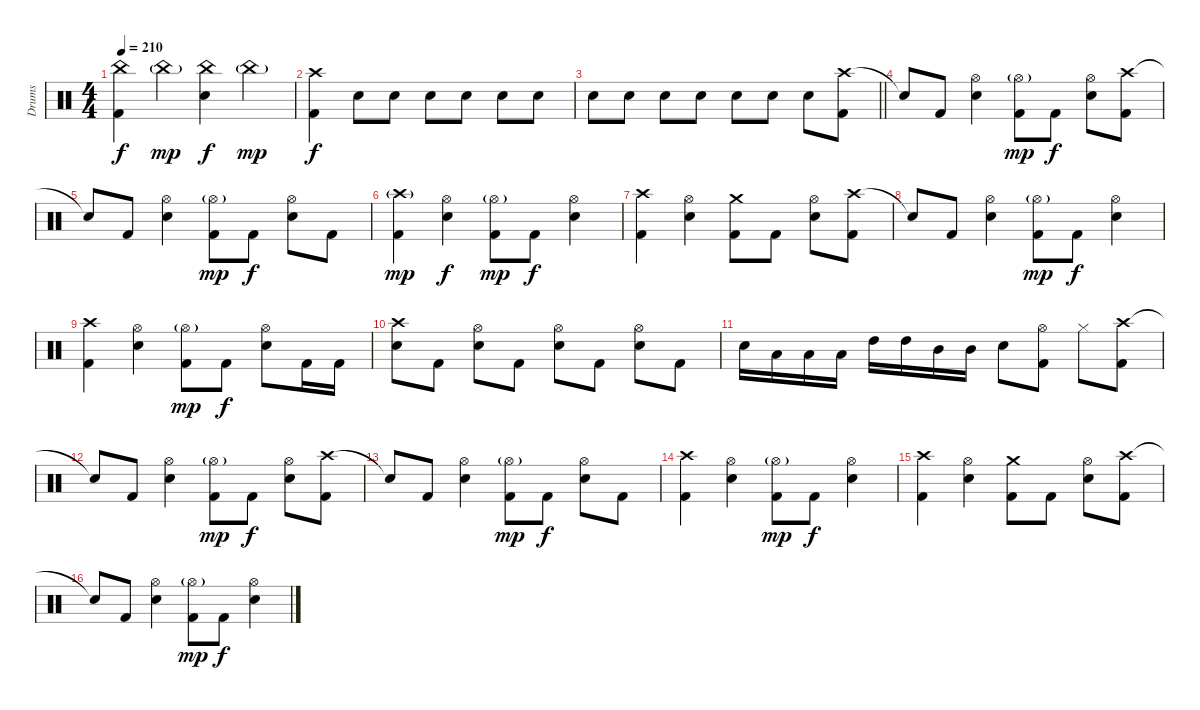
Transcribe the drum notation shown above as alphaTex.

\track ("Drums" "Drums") {instrument percussion}
\staff {score}
\articulation defaults
\ts (4 4)
\tempo 210
\clef neutral
\ks c
("China (hit)" "Kick (hit) 2").4{dy f} "China (hit)"{g}.4{dy mp} ("China (hit)" "Electric Snare (hit)").4{dy f} "China (hit)"{g}.4{dy mp} |
("Crash high (hit)" "Kick (hit) 2").4{dy f} "Electric Snare (hit)".8 "Electric Snare (hit)".8 "Electric Snare (hit)".8 "Electric Snare (hit)".8 "Electric Snare (hit)".8 "Electric Snare (hit)".8 |
\barLineRight lightlight "Electric Snare (hit)".8 "Electric Snare (hit)".8 "Electric Snare (hit)".8 "Electric Snare (hit)".8 "Electric Snare (hit)".8 "Electric Snare (hit)".8 "Electric Snare (hit)".8
("Crash high (hit)" "Kick (hit) 2").8 |
"Snare (hit)"{t}.8 "Kick (hit) 2".8 ("Hi-Hat (open)" "Electric Snare (hit)").4 ("Hi-Hat (open)"{g} "Kick (hit) 2").8{dy mp} "Kick (hit) 2".8{dy f} ("Hi-Hat (open)" "Electric Snare (hit)").8 ("Crash high (hit)" "Kick (hit) 2").8 |
"Snare (hit)"{t}.8 "Kick (hit) 2".8 ("Hi-Hat (open)" "Electric Snare (hit)").4 ("Hi-Hat (open)"{g} "Kick (hit) 2").8{dy mp} "Kick (hit) 2".8{dy f} ("Hi-Hat (open)" "Electric Snare (hit)").8 "Kick (hit) 2".8 |
("Crash high (hit)"{g} "Kick (hit) 2").4{dy mp} ("Hi-Hat (open)" "Electric Snare (hit)").4{dy f} ("Hi-Hat (open)"{g} "Kick (hit) 2").8{dy mp} "Kick (hit) 2".8{dy f} ("Hi-Hat (open)" "Electric Snare (hit)").4 |
("Crash high (hit)" "Kick (hit) 2").4 ("Hi-Hat (open)" "Electric Snare (hit)").4 ("Crash medium (hit)" "Kick (hit) 2").8 "Kick (hit) 2".8 ("Hi-Hat (open)" "Electric Snare (hit)").8 ("Crash high (hit)" "Kick (hit) 2").8 |
"Snare (hit)"{t}.8 "Kick (hit) 2".8 ("Hi-Hat (open)" "Electric Snare (hit)").4 ("Hi-Hat (open)"{g} "Kick (hit) 2").8{dy mp} "Kick (hit) 2".8{dy f} ("Hi-Hat (open)" "Electric Snare (hit)").4 |
("Crash high (hit)" "Kick (hit) 2").4 ("Hi-Hat (open)" "Electric Snare (hit)").4 ("Hi-Hat (open)"{g} "Kick (hit) 2").8{dy mp} "Kick (hit) 2".8{dy f} ("Hi-Hat (open)" "Electric Snare (hit)").8 "Kick (hit) 2".16 "Kick (hit) 2".16 |
("Crash high (hit)" "Electric Snare (hit)").8 "Kick (hit) 2".8 ("Hi-Hat (open)" "Electric Snare (hit)").8 "Kick (hit) 2".8 ("Hi-Hat (open)" "Electric Snare (hit)").8 "Kick (hit) 2".8 ("Hi-Hat (open)" "Electric Snare (hit)").8 "Kick (hit) 2".8 |
"Electric Snare (hit)".16 "Low Tom (hit)".16 "Low Tom (hit)".16 "Low Tom (hit)".16 "High Tom (hit)".16 "High Tom (hit)".16 "Mid Tom (hit)".16 "Mid Tom (hit)".16 "Electric Snare (hit)".8 ("Hi-Hat (open)" "Kick (hit) 2").8 "Hi-Hat (closed)".8 ("Crash high (hit)" "Kick (hit) 2").8 |
"Snare (hit)"{t}.8 "Kick (hit) 2".8 ("Hi-Hat (open)" "Electric Snare (hit)").4 ("Hi-Hat (open)"{g} "Kick (hit) 2").8{dy mp} "Kick (hit) 2".8{dy f} ("Hi-Hat (open)" "Electric Snare (hit)").8 ("Crash high (hit)" "Kick (hit) 2").8 |
"Snare (hit)"{t}.8 "Kick (hit) 2".8 ("Hi-Hat (open)" "Electric Snare (hit)").4 ("Hi-Hat (open)"{g} "Kick (hit) 2").8{dy mp} "Kick (hit) 2".8{dy f} ("Hi-Hat (open)" "Electric Snare (hit)").8 "Kick (hit) 2".8 |
("Crash high (hit)" "Kick (hit) 2").4 ("Hi-Hat (open)" "Electric Snare (hit)").4 ("Hi-Hat (open)"{g} "Kick (hit) 2").8{dy mp} "Kick (hit) 2".8{dy f} ("Hi-Hat (open)" "Electric Snare (hit)").4 |
("Crash high (hit)" "Kick (hit) 2").4 ("Hi-Hat (open)" "Electric Snare (hit)").4 ("Crash medium (hit)" "Kick (hit) 2").8 "Kick (hit) 2".8 ("Hi-Hat (open)" "Electric Snare (hit)").8 ("Crash high (hit)" "Kick (hit) 2").8 |
"Snare (hit)"{t}.8 "Kick (hit) 2".8 ("Hi-Hat (open)" "Electric Snare (hit)").4 ("Hi-Hat (open)"{g} "Kick (hit) 2").8{dy mp} "Kick (hit) 2".8{dy f} ("Hi-Hat (open)" "Electric Snare (hit)").4
